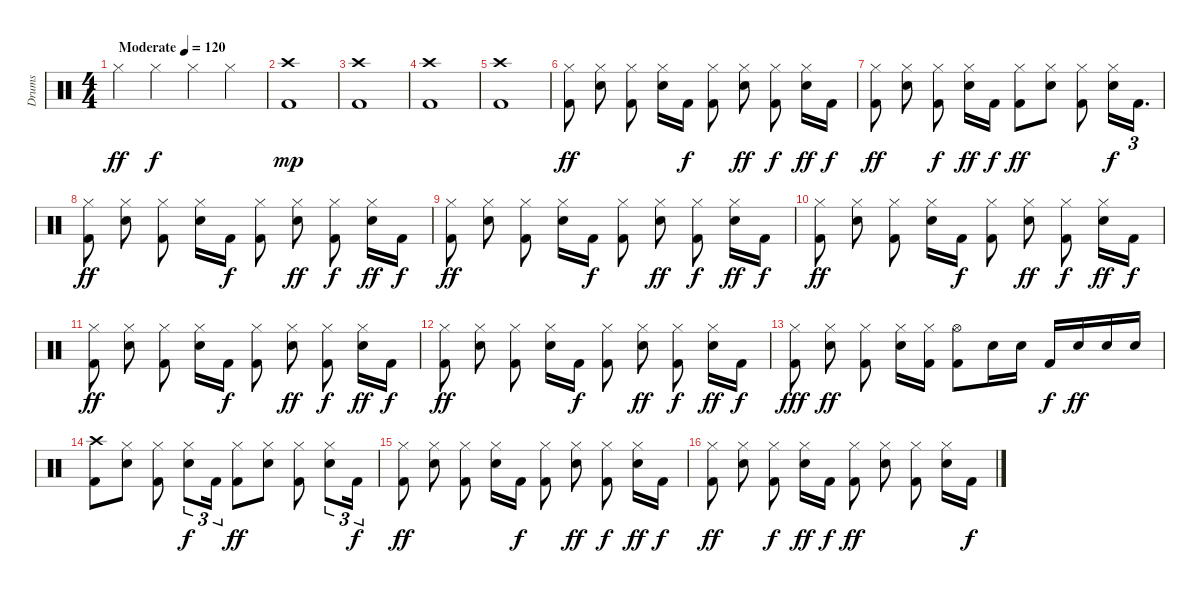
\track ("Drums" "Drums") {instrument percussion}
\staff {score}
\articulation defaults
\ts (4 4)
\tempo (120 "Moderate")
\clef neutral
\ks c "Hi-Hat (closed)".4{dy ff} "Hi-Hat (closed)".4{dy f} "Hi-Hat (closed)".4 "Hi-Hat (closed)".4
|
("Kick (hit) 2" "Crash high (hit)").1{dy mp} |
("Kick (hit) 2" "Crash high (hit)").1 |
("Kick (hit) 2" "Crash high (hit)").1 |
("Kick (hit) 2" "Crash high (hit)").1 |
("Kick (hit) 2" "Hi-Hat (closed)").8{dy ff beam split} ("Snare (hit) 2" "Hi-Hat (closed)").8 ("Kick (hit) 2" "Hi-Hat (closed)").8{beam split} ("Snare (hit) 2" "Hi-Hat (closed)").16 "Kick (hit) 2".16{dy f beam split} ("Kick (hit) 2" "Hi-Hat (closed)").8{beam split} ("Snare (hit) 2" "Hi-Hat (closed)").8{dy ff} ("Kick (hit) 2" "Hi-Hat (closed)").8{dy f beam split} ("Snare (hit) 2" "Hi-Hat (closed)").16{dy ff} "Kick (hit) 2".16{dy f} |
("Kick (hit) 2" "Hi-Hat (closed)").8{dy ff beam split} ("Snare (hit) 2" "Hi-Hat (closed)").8 ("Kick (hit) 2" "Hi-Hat (closed)").8{dy f beam split} ("Snare (hit) 2" "Hi-Hat (closed)").16{dy ff} "Kick (hit) 2".16{dy f} ("Kick (hit) 2" "Hi-Hat (closed)").8{dy ff} ("Snare (hit) 2" "Hi-Hat (closed)").8 ("Kick (hit) 2" "Hi-Hat (closed)").8{beam split} ("Snare (hit) 2" "Hi-Hat (closed)").16{dy f beam merge} "Kick (hit) 2".16{d tu (3 2)} |
("Kick (hit) 2" "Hi-Hat (closed)").8{dy ff beam split} ("Snare (hit) 2" "Hi-Hat (closed)").8 ("Kick (hit) 2" "Hi-Hat (closed)").8{beam split} ("Snare (hit) 2" "Hi-Hat (closed)").16{beam merge} "Kick (hit) 2".16{dy f} ("Kick (hit) 2" "Hi-Hat (closed)").8{beam split} ("Snare (hit) 2" "Hi-Hat (closed)").8{dy ff beam split} ("Kick (hit) 2" "Hi-Hat (closed)").8{dy f beam split} ("Snare (hit) 2" "Hi-Hat (closed)").16{dy ff beam merge} "Kick (hit) 2".16{dy f} |
("Kick (hit) 2" "Hi-Hat (closed)").8{dy ff beam split} ("Snare (hit) 2" "Hi-Hat (closed)").8 ("Kick (hit) 2" "Hi-Hat (closed)").8{beam split} ("Snare (hit) 2" "Hi-Hat (closed)").16{beam merge} "Kick (hit) 2".16{dy f} ("Kick (hit) 2" "Hi-Hat (closed)").8{beam split} ("Snare (hit) 2" "Hi-Hat (closed)").8{dy ff beam split} ("Kick (hit) 2" "Hi-Hat (closed)").8{dy f beam split} ("Snare (hit) 2" "Hi-Hat (closed)").16{dy ff beam merge} "Kick (hit) 2".16{dy f} |
("Kick (hit) 2" "Hi-Hat (closed)").8{dy ff beam split} ("Snare (hit) 2" "Hi-Hat (closed)").8 ("Kick (hit) 2" "Hi-Hat (closed)").8{beam split} ("Snare (hit) 2" "Hi-Hat (closed)").16{beam merge} "Kick (hit) 2".16{dy f} ("Kick (hit) 2" "Hi-Hat (closed)").8{beam split} ("Snare (hit) 2" "Hi-Hat (closed)").8{dy ff beam split} ("Kick (hit) 2" "Hi-Hat (closed)").8{dy f beam split} ("Snare (hit) 2" "Hi-Hat (closed)").16{dy ff beam merge} "Kick (hit) 2".16{dy f} |
("Kick (hit) 2" "Hi-Hat (closed)").8{dy ff beam split} ("Snare (hit) 2" "Hi-Hat (closed)").8 ("Kick (hit) 2" "Hi-Hat (closed)").8{beam split} ("Snare (hit) 2" "Hi-Hat (closed)").16{beam merge} "Kick (hit) 2".16{dy f} ("Kick (hit) 2" "Hi-Hat (closed)").8{beam split} ("Snare (hit) 2" "Hi-Hat (closed)").8{dy ff beam split} ("Kick (hit) 2" "Hi-Hat (closed)").8{dy f beam split} ("Snare (hit) 2" "Hi-Hat (closed)").16{dy ff beam merge} "Kick (hit) 2".16{dy f} |
("Kick (hit) 2" "Hi-Hat (closed)").8{dy ff beam split} ("Snare (hit) 2" "Hi-Hat (closed)").8 ("Kick (hit) 2" "Hi-Hat (closed)").8{beam split} ("Snare (hit) 2" "Hi-Hat (closed)").16{beam merge} "Kick (hit) 2".16{dy f} ("Kick (hit) 2" "Hi-Hat (closed)").8{beam split} ("Snare (hit) 2" "Hi-Hat (closed)").8{dy ff beam split} ("Kick (hit) 2" "Hi-Hat (closed)").8{dy f beam split} ("Snare (hit) 2" "Hi-Hat (closed)").16{dy ff beam merge} "Kick (hit) 2".16{dy f} |
("Kick (hit) 2" "Hi-Hat (closed)").8{dy fff beam split} ("Snare (hit) 2" "Hi-Hat (closed)").8{dy ff} ("Kick (hit) 2" "Hi-Hat (closed)").8{beam split} ("Snare (hit) 2" "Hi-Hat (closed)").16{beam merge} ("Kick (hit) 2" "Hi-Hat (closed)").16 ("Kick (hit) 2" "Hi-Hat (open)").8 "Snare (hit) 2".16{beam merge} "Snare (hit) 2".16 "Kick (hit) 2".16{dy f beam merge} "Snare (hit) 2".16{dy ff} "Snare (hit) 2".16{beam merge} "Snare (hit) 2".16 |
("Kick (hit) 2" "Crash high (hit)").8 ("Snare (hit) 2" "Hi-Hat (closed)").8 ("Kick (hit) 2" "Hi-Hat (closed)").8 ("Snare (hit) 2" "Hi-Hat (closed)").8{tu (3 2) dy f} "Kick (hit) 2".16{tu (3 2)} ("Kick (hit) 2" "Hi-Hat (closed)").8{dy ff} ("Snare (hit) 2" "Hi-Hat (closed)").8 ("Kick (hit) 2" "Hi-Hat (closed)").8 ("Snare (hit) 2" "Hi-Hat (closed)").8{tu (3 2)} "Kick (hit) 2".16{tu (3 2) dy f} |
("Kick (hit) 2" "Hi-Hat (closed)").8{dy ff beam split} ("Snare (hit) 2" "Hi-Hat (closed)").8 ("Kick (hit) 2" "Hi-Hat (closed)").8{beam split} ("Snare (hit) 2" "Hi-Hat (closed)").16{beam merge} "Kick (hit) 2".16{dy f} ("Kick (hit) 2" "Hi-Hat (closed)").8{beam split} ("Snare (hit) 2" "Hi-Hat (closed)").8{dy ff beam split} ("Kick (hit) 2" "Hi-Hat (closed)").8{dy f beam split} ("Snare (hit) 2" "Hi-Hat (closed)").16{dy ff beam merge} "Kick (hit) 2".16{dy f} |
("Kick (hit) 2" "Hi-Hat (closed)").8{dy ff beam split} ("Snare (hit) 2" "Hi-Hat (closed)").8 ("Kick (hit) 2" "Hi-Hat (closed)").8{dy f beam split} ("Snare (hit) 2" "Hi-Hat (closed)").16{dy ff} "Kick (hit) 2".16{dy f} ("Kick (hit) 2" "Hi-Hat (closed)").8{dy ff beam split} ("Snare (hit) 2" "Hi-Hat (closed)").8 ("Kick (hit) 2" "Hi-Hat (closed)").8{beam split} ("Snare (hit) 2" "Hi-Hat (closed)").16 "Kick (hit) 2".16{dy f}
